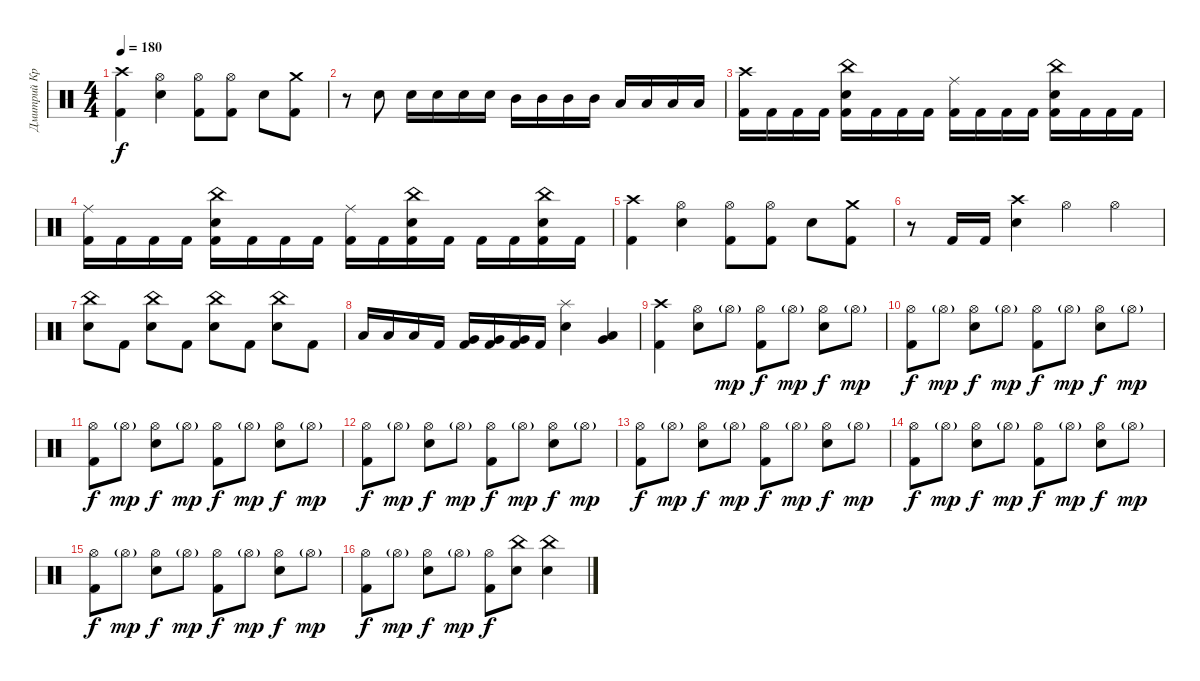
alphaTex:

\track ("Дмитрий Кривенков" "Дмитрий Кр") {instrument percussion}
\staff {score}
\articulation defaults
\ts (4 4)
\tempo 180
\clef neutral
\ks c
("Crash high (hit)" "Kick (hit) 2").4{dy f} ("Hi-Hat (open)" "Electric Snare (hit)").4 ("Hi-Hat (open)" "Kick (hit) 2").8 ("Hi-Hat (open)" "Kick (hit) 2").8 "Electric Snare (hit)".8 ("Crash medium (hit)" "Kick (hit) 2").8 |
r.8 "Electric Snare (hit)".8 "Electric Snare (hit)".16 "Electric Snare (hit)".16 "Electric Snare (hit)".16 "Electric Snare (hit)".16 "Mid Tom (hit)".16 "Mid Tom (hit)".16 "Mid Tom (hit)".16 "Mid Tom (hit)".16 "Low Tom (hit)".16 "Low Tom (hit)".16 "Low Tom (hit)".16 "Low Tom (hit)".16 |
("Crash high (hit)" "Kick (hit) 2").16 "Kick (hit) 2".16 "Kick (hit) 2".16 "Kick (hit) 2".16 ("China (hit)" "Electric Snare (hit)" "Kick (hit) 2").16 "Kick (hit) 2".16 "Kick (hit) 2".16 "Kick (hit) 2".16 ("Ride (middle)" "Kick (hit) 2").16 "Kick (hit) 2".16 "Kick (hit) 2".16 "Kick (hit) 2".16 ("China (hit)" "Electric Snare (hit)" "Kick (hit) 2").16 "Kick (hit) 2".16 "Kick (hit) 2".16 "Kick (hit) 2".16 |
("Ride (middle)" "Kick (hit) 2").16 "Kick (hit) 2".16 "Kick (hit) 2".16 "Kick (hit) 2".16 ("China (hit)" "Electric Snare (hit)" "Kick (hit) 2").16 "Kick (hit) 2".16 "Kick (hit) 2".16 "Kick (hit) 2".16 ("Ride (middle)" "Kick (hit) 2").16 "Kick (hit) 2".16 ("China (hit)" "Electric Snare (hit)" "Kick (hit) 2").16 "Kick (hit) 2".16 "Kick (hit) 2".16 "Kick (hit) 2".16 ("China (hit)" "Electric Snare (hit)" "Kick (hit) 2").16 "Kick (hit) 2".16 |
("Crash high (hit)" "Kick (hit) 2").4 ("Hi-Hat (open)" "Electric Snare (hit)").4 ("Hi-Hat (open)" "Kick (hit) 2").8 ("Hi-Hat (open)" "Kick (hit) 2").8 "Electric Snare (hit)".8 ("Crash medium (hit)" "Kick (hit) 2").8 |
r.8 "Kick (hit) 2".16 "Kick (hit) 2".16 ("Crash high (hit)" "Electric Snare (hit)").4 "Hi-Hat (open)".4 "Hi-Hat (open)".4 |
("China (hit)" "Electric Snare (hit)").8 "Kick (hit) 2".8 ("China (hit)" "Electric Snare (hit)").8 "Kick (hit) 2".8 ("China (hit)" "Electric Snare (hit)").8 "Kick (hit) 2".8 ("China (hit)" "Electric Snare (hit)").8 "Kick (hit) 2".8 |
"Low Tom (hit)".16 "Low Tom (hit)".16 "Low Tom (hit)".16 "Kick (hit) 2".16 ("Very Low Tom (hit)" "Kick (hit) 2").16 ("Very Low Tom (hit)" "Kick (hit) 2").16 ("Very Low Tom (hit)" "Kick (hit) 2").16 "Kick (hit) 2".16 ("Splash (hit)" "Electric Snare (hit)").4 ("Very Low Tom (hit)" "Low Floor Tom (hit)").4 |
("Crash high (hit)" "Kick (hit) 2").4 ("Hi-Hat (open)" "Electric Snare (hit)").8 "Hi-Hat (open)"{g}.8{dy mp} ("Hi-Hat (open)" "Kick (hit) 2").8{dy f} "Hi-Hat (open)"{g}.8{dy mp} ("Hi-Hat (open)" "Electric Snare (hit)").8{dy f} "Hi-Hat (open)"{g}.8{dy mp} |
("Hi-Hat (open)" "Kick (hit) 2").8{dy f} "Hi-Hat (open)"{g}.8{dy mp} ("Hi-Hat (open)" "Electric Snare (hit)").8{dy f} "Hi-Hat (open)"{g}.8{dy mp} ("Hi-Hat (open)" "Kick (hit) 2").8{dy f} "Hi-Hat (open)"{g}.8{dy mp} ("Hi-Hat (open)" "Electric Snare (hit)").8{dy f} "Hi-Hat (open)"{g}.8{dy mp} |
("Hi-Hat (open)" "Kick (hit) 2").8{dy f} "Hi-Hat (open)"{g}.8{dy mp} ("Hi-Hat (open)" "Electric Snare (hit)").8{dy f} "Hi-Hat (open)"{g}.8{dy mp} ("Hi-Hat (open)" "Kick (hit) 2").8{dy f} "Hi-Hat (open)"{g}.8{dy mp} ("Hi-Hat (open)" "Electric Snare (hit)").8{dy f} "Hi-Hat (open)"{g}.8{dy mp} |
("Hi-Hat (open)" "Kick (hit) 2").8{dy f} "Hi-Hat (open)"{g}.8{dy mp} ("Hi-Hat (open)" "Electric Snare (hit)").8{dy f} "Hi-Hat (open)"{g}.8{dy mp} ("Hi-Hat (open)" "Kick (hit) 2").8{dy f} "Hi-Hat (open)"{g}.8{dy mp} ("Hi-Hat (open)" "Electric Snare (hit)").8{dy f} "Hi-Hat (open)"{g}.8{dy mp} |
("Hi-Hat (open)" "Kick (hit) 2").8{dy f} "Hi-Hat (open)"{g}.8{dy mp} ("Hi-Hat (open)" "Electric Snare (hit)").8{dy f} "Hi-Hat (open)"{g}.8{dy mp} ("Hi-Hat (open)" "Kick (hit) 2").8{dy f} "Hi-Hat (open)"{g}.8{dy mp} ("Hi-Hat (open)" "Electric Snare (hit)").8{dy f} "Hi-Hat (open)"{g}.8{dy mp} |
("Hi-Hat (open)" "Kick (hit) 2").8{dy f} "Hi-Hat (open)"{g}.8{dy mp} ("Hi-Hat (open)" "Electric Snare (hit)").8{dy f} "Hi-Hat (open)"{g}.8{dy mp} ("Hi-Hat (open)" "Kick (hit) 2").8{dy f} "Hi-Hat (open)"{g}.8{dy mp} ("Hi-Hat (open)" "Electric Snare (hit)").8{dy f} "Hi-Hat (open)"{g}.8{dy mp} |
("Hi-Hat (open)" "Kick (hit) 2").8{dy f} "Hi-Hat (open)"{g}.8{dy mp} ("Hi-Hat (open)" "Electric Snare (hit)").8{dy f} "Hi-Hat (open)"{g}.8{dy mp} ("Hi-Hat (open)" "Kick (hit) 2").8{dy f} "Hi-Hat (open)"{g}.8{dy mp} ("Hi-Hat (open)" "Electric Snare (hit)").8{dy f} "Hi-Hat (open)"{g}.8{dy mp} |
("Hi-Hat (open)" "Kick (hit) 2").8{dy f} "Hi-Hat (open)"{g}.8{dy mp} ("Hi-Hat (open)" "Electric Snare (hit)").8{dy f} "Hi-Hat (open)"{g}.8{dy mp} ("Hi-Hat (open)" "Kick (hit) 2").8{dy f} ("China (hit)" "Electric Snare (hit)").8 ("China (hit)" "Electric Snare (hit)").4
